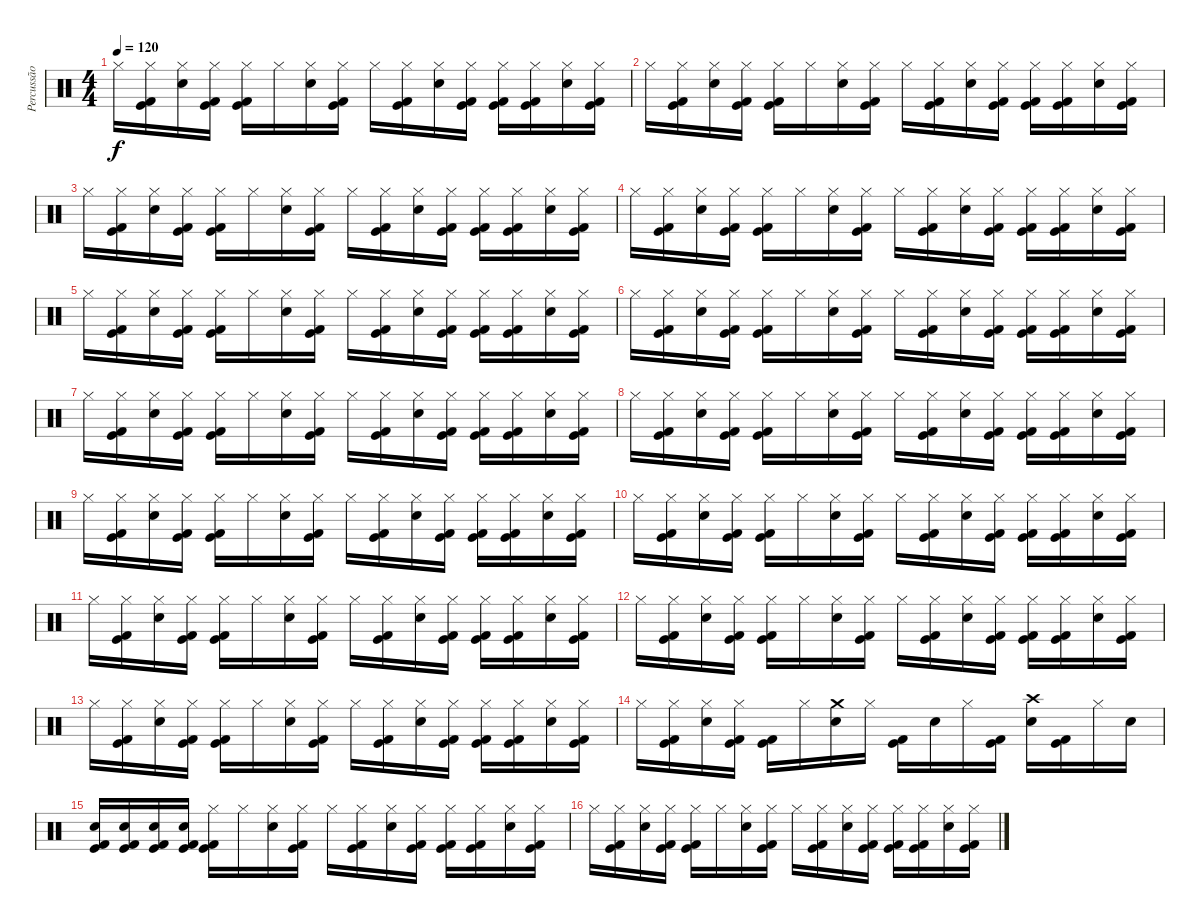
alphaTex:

\track ("Percussão" "Percussão") {instrument percussion}
\staff {score}
\articulation defaults
\ts (4 4)
\tempo 120
\clef neutral
\ks c "Hi-Hat (closed)".16{dy f}
("Hi-Hat (closed)" "Kick (hit)" "Kick (hit) 2").16 ("Hi-Hat (closed)" "Electric Snare (hit)").16 ("Hi-Hat (closed)" "Kick (hit)" "Kick (hit) 2").16 ("Hi-Hat (closed)" "Kick (hit)" "Kick (hit) 2").16 "Hi-Hat (closed)".16 ("Hi-Hat (closed)" "Electric Snare (hit)").16 ("Hi-Hat (closed)" "Kick (hit)" "Kick (hit) 2").16 "Hi-Hat (closed)".16 ("Hi-Hat (closed)" "Kick (hit)" "Kick (hit) 2").16 ("Hi-Hat (closed)" "Electric Snare (hit)").16 ("Hi-Hat (closed)" "Kick (hit)" "Kick (hit) 2").16 ("Hi-Hat (closed)" "Kick (hit)" "Kick (hit) 2").16 ("Hi-Hat (closed)" "Kick (hit)" "Kick (hit) 2").16 ("Hi-Hat (closed)" "Electric Snare (hit)").16 ("Hi-Hat (closed)" "Kick (hit)" "Kick (hit) 2").16 |
"Hi-Hat (closed)".16 ("Hi-Hat (closed)" "Kick (hit)" "Kick (hit) 2").16 ("Hi-Hat (closed)" "Electric Snare (hit)").16 ("Hi-Hat (closed)" "Kick (hit)" "Kick (hit) 2").16 ("Hi-Hat (closed)" "Kick (hit)" "Kick (hit) 2").16 "Hi-Hat (closed)".16 ("Hi-Hat (closed)" "Electric Snare (hit)").16 ("Hi-Hat (closed)" "Kick (hit)" "Kick (hit) 2").16 "Hi-Hat (closed)".16 ("Hi-Hat (closed)" "Kick (hit)" "Kick (hit) 2").16 ("Hi-Hat (closed)" "Electric Snare (hit)").16 ("Hi-Hat (closed)" "Kick (hit)" "Kick (hit) 2").16 ("Hi-Hat (closed)" "Kick (hit)" "Kick (hit) 2").16 ("Hi-Hat (closed)" "Kick (hit)" "Kick (hit) 2").16 ("Hi-Hat (closed)" "Electric Snare (hit)").16 ("Hi-Hat (closed)" "Kick (hit)" "Kick (hit) 2").16 |
"Hi-Hat (closed)".16 ("Hi-Hat (closed)" "Kick (hit)" "Kick (hit) 2").16 ("Hi-Hat (closed)" "Electric Snare (hit)").16 ("Hi-Hat (closed)" "Kick (hit)" "Kick (hit) 2").16 ("Hi-Hat (closed)" "Kick (hit)" "Kick (hit) 2").16 "Hi-Hat (closed)".16 ("Hi-Hat (closed)" "Electric Snare (hit)").16 ("Hi-Hat (closed)" "Kick (hit)" "Kick (hit) 2").16 "Hi-Hat (closed)".16 ("Hi-Hat (closed)" "Kick (hit)" "Kick (hit) 2").16 ("Hi-Hat (closed)" "Electric Snare (hit)").16 ("Hi-Hat (closed)" "Kick (hit)" "Kick (hit) 2").16 ("Hi-Hat (closed)" "Kick (hit)" "Kick (hit) 2").16 ("Hi-Hat (closed)" "Kick (hit)" "Kick (hit) 2").16 ("Hi-Hat (closed)" "Electric Snare (hit)").16 ("Hi-Hat (closed)" "Kick (hit)" "Kick (hit) 2").16 |
"Hi-Hat (closed)".16 ("Hi-Hat (closed)" "Kick (hit)" "Kick (hit) 2").16 ("Hi-Hat (closed)" "Electric Snare (hit)").16 ("Hi-Hat (closed)" "Kick (hit)" "Kick (hit) 2").16 ("Hi-Hat (closed)" "Kick (hit)" "Kick (hit) 2").16 "Hi-Hat (closed)".16 ("Hi-Hat (closed)" "Electric Snare (hit)").16 ("Hi-Hat (closed)" "Kick (hit)" "Kick (hit) 2").16 "Hi-Hat (closed)".16 ("Hi-Hat (closed)" "Kick (hit)" "Kick (hit) 2").16 ("Hi-Hat (closed)" "Electric Snare (hit)").16 ("Hi-Hat (closed)" "Kick (hit)" "Kick (hit) 2").16 ("Hi-Hat (closed)" "Kick (hit)" "Kick (hit) 2").16 ("Hi-Hat (closed)" "Kick (hit)" "Kick (hit) 2").16 ("Hi-Hat (closed)" "Electric Snare (hit)").16 ("Hi-Hat (closed)" "Kick (hit)" "Kick (hit) 2").16 |
"Hi-Hat (closed)".16 ("Hi-Hat (closed)" "Kick (hit)" "Kick (hit) 2").16 ("Hi-Hat (closed)" "Electric Snare (hit)").16 ("Hi-Hat (closed)" "Kick (hit)" "Kick (hit) 2").16 ("Hi-Hat (closed)" "Kick (hit)" "Kick (hit) 2").16 "Hi-Hat (closed)".16 ("Hi-Hat (closed)" "Electric Snare (hit)").16 ("Hi-Hat (closed)" "Kick (hit)" "Kick (hit) 2").16 "Hi-Hat (closed)".16 ("Hi-Hat (closed)" "Kick (hit)" "Kick (hit) 2").16 ("Hi-Hat (closed)" "Electric Snare (hit)").16 ("Hi-Hat (closed)" "Kick (hit)" "Kick (hit) 2").16 ("Hi-Hat (closed)" "Kick (hit)" "Kick (hit) 2").16 ("Hi-Hat (closed)" "Kick (hit)" "Kick (hit) 2").16 ("Hi-Hat (closed)" "Electric Snare (hit)").16 ("Hi-Hat (closed)" "Kick (hit)" "Kick (hit) 2").16 |
"Hi-Hat (closed)".16 ("Hi-Hat (closed)" "Kick (hit)" "Kick (hit) 2").16 ("Hi-Hat (closed)" "Electric Snare (hit)").16 ("Hi-Hat (closed)" "Kick (hit)" "Kick (hit) 2").16 ("Hi-Hat (closed)" "Kick (hit)" "Kick (hit) 2").16 "Hi-Hat (closed)".16 ("Hi-Hat (closed)" "Electric Snare (hit)").16 ("Hi-Hat (closed)" "Kick (hit)" "Kick (hit) 2").16 "Hi-Hat (closed)".16 ("Hi-Hat (closed)" "Kick (hit)" "Kick (hit) 2").16 ("Hi-Hat (closed)" "Electric Snare (hit)").16 ("Hi-Hat (closed)" "Kick (hit)" "Kick (hit) 2").16 ("Hi-Hat (closed)" "Kick (hit)" "Kick (hit) 2").16 ("Hi-Hat (closed)" "Kick (hit)" "Kick (hit) 2").16 ("Hi-Hat (closed)" "Electric Snare (hit)").16 ("Hi-Hat (closed)" "Kick (hit)" "Kick (hit) 2").16 |
"Hi-Hat (closed)".16 ("Hi-Hat (closed)" "Kick (hit)" "Kick (hit) 2").16 ("Hi-Hat (closed)" "Electric Snare (hit)").16 ("Hi-Hat (closed)" "Kick (hit)" "Kick (hit) 2").16 ("Hi-Hat (closed)" "Kick (hit)" "Kick (hit) 2").16 "Hi-Hat (closed)".16 ("Hi-Hat (closed)" "Electric Snare (hit)").16 ("Hi-Hat (closed)" "Kick (hit)" "Kick (hit) 2").16 "Hi-Hat (closed)".16 ("Hi-Hat (closed)" "Kick (hit)" "Kick (hit) 2").16 ("Hi-Hat (closed)" "Electric Snare (hit)").16 ("Hi-Hat (closed)" "Kick (hit)" "Kick (hit) 2").16 ("Hi-Hat (closed)" "Kick (hit)" "Kick (hit) 2").16 ("Hi-Hat (closed)" "Kick (hit)" "Kick (hit) 2").16 ("Hi-Hat (closed)" "Electric Snare (hit)").16 ("Hi-Hat (closed)" "Kick (hit)" "Kick (hit) 2").16 |
"Hi-Hat (closed)".16 ("Hi-Hat (closed)" "Kick (hit)" "Kick (hit) 2").16 ("Hi-Hat (closed)" "Electric Snare (hit)").16 ("Hi-Hat (closed)" "Kick (hit)" "Kick (hit) 2").16 ("Hi-Hat (closed)" "Kick (hit)" "Kick (hit) 2").16 "Hi-Hat (closed)".16 ("Hi-Hat (closed)" "Electric Snare (hit)").16 ("Hi-Hat (closed)" "Kick (hit)" "Kick (hit) 2").16 "Hi-Hat (closed)".16 ("Hi-Hat (closed)" "Kick (hit)" "Kick (hit) 2").16 ("Hi-Hat (closed)" "Electric Snare (hit)").16 ("Hi-Hat (closed)" "Kick (hit)" "Kick (hit) 2").16 ("Hi-Hat (closed)" "Kick (hit)" "Kick (hit) 2").16 ("Hi-Hat (closed)" "Kick (hit)" "Kick (hit) 2").16 ("Hi-Hat (closed)" "Electric Snare (hit)").16 ("Hi-Hat (closed)" "Kick (hit)" "Kick (hit) 2").16 |
"Hi-Hat (closed)".16 ("Hi-Hat (closed)" "Kick (hit)" "Kick (hit) 2").16 ("Hi-Hat (closed)" "Electric Snare (hit)").16 ("Hi-Hat (closed)" "Kick (hit)" "Kick (hit) 2").16 ("Hi-Hat (closed)" "Kick (hit)" "Kick (hit) 2").16 "Hi-Hat (closed)".16 ("Hi-Hat (closed)" "Electric Snare (hit)").16 ("Hi-Hat (closed)" "Kick (hit)" "Kick (hit) 2").16 "Hi-Hat (closed)".16 ("Hi-Hat (closed)" "Kick (hit)" "Kick (hit) 2").16 ("Hi-Hat (closed)" "Electric Snare (hit)").16 ("Hi-Hat (closed)" "Kick (hit)" "Kick (hit) 2").16 ("Hi-Hat (closed)" "Kick (hit)" "Kick (hit) 2").16 ("Hi-Hat (closed)" "Kick (hit)" "Kick (hit) 2").16 ("Hi-Hat (closed)" "Electric Snare (hit)").16 ("Hi-Hat (closed)" "Kick (hit)" "Kick (hit) 2").16 |
"Hi-Hat (closed)".16 ("Hi-Hat (closed)" "Kick (hit)" "Kick (hit) 2").16 ("Hi-Hat (closed)" "Electric Snare (hit)").16 ("Hi-Hat (closed)" "Kick (hit)" "Kick (hit) 2").16 ("Hi-Hat (closed)" "Kick (hit)" "Kick (hit) 2").16 "Hi-Hat (closed)".16 ("Hi-Hat (closed)" "Electric Snare (hit)").16 ("Hi-Hat (closed)" "Kick (hit)" "Kick (hit) 2").16 "Hi-Hat (closed)".16 ("Hi-Hat (closed)" "Kick (hit)" "Kick (hit) 2").16 ("Hi-Hat (closed)" "Electric Snare (hit)").16 ("Hi-Hat (closed)" "Kick (hit)" "Kick (hit) 2").16 ("Hi-Hat (closed)" "Kick (hit)" "Kick (hit) 2").16 ("Hi-Hat (closed)" "Kick (hit)" "Kick (hit) 2").16 ("Hi-Hat (closed)" "Electric Snare (hit)").16 ("Hi-Hat (closed)" "Kick (hit)" "Kick (hit) 2").16 |
"Hi-Hat (closed)".16 ("Hi-Hat (closed)" "Kick (hit)" "Kick (hit) 2").16 ("Hi-Hat (closed)" "Electric Snare (hit)").16 ("Hi-Hat (closed)" "Kick (hit)" "Kick (hit) 2").16 ("Hi-Hat (closed)" "Kick (hit)" "Kick (hit) 2").16 "Hi-Hat (closed)".16 ("Hi-Hat (closed)" "Electric Snare (hit)").16 ("Hi-Hat (closed)" "Kick (hit)" "Kick (hit) 2").16 "Hi-Hat (closed)".16 ("Hi-Hat (closed)" "Kick (hit)" "Kick (hit) 2").16 ("Hi-Hat (closed)" "Electric Snare (hit)").16 ("Hi-Hat (closed)" "Kick (hit)" "Kick (hit) 2").16 ("Hi-Hat (closed)" "Kick (hit)" "Kick (hit) 2").16 ("Hi-Hat (closed)" "Kick (hit)" "Kick (hit) 2").16 ("Hi-Hat (closed)" "Electric Snare (hit)").16 ("Hi-Hat (closed)" "Kick (hit)" "Kick (hit) 2").16 |
"Hi-Hat (closed)".16 ("Hi-Hat (closed)" "Kick (hit)" "Kick (hit) 2").16 ("Hi-Hat (closed)" "Electric Snare (hit)").16 ("Hi-Hat (closed)" "Kick (hit)" "Kick (hit) 2").16 ("Hi-Hat (closed)" "Kick (hit)" "Kick (hit) 2").16 "Hi-Hat (closed)".16 ("Hi-Hat (closed)" "Electric Snare (hit)").16 ("Hi-Hat (closed)" "Kick (hit)" "Kick (hit) 2").16 "Hi-Hat (closed)".16 ("Hi-Hat (closed)" "Kick (hit)" "Kick (hit) 2").16 ("Hi-Hat (closed)" "Electric Snare (hit)").16 ("Hi-Hat (closed)" "Kick (hit)" "Kick (hit) 2").16 ("Hi-Hat (closed)" "Kick (hit)" "Kick (hit) 2").16 ("Hi-Hat (closed)" "Kick (hit)" "Kick (hit) 2").16 ("Hi-Hat (closed)" "Electric Snare (hit)").16 ("Hi-Hat (closed)" "Kick (hit)" "Kick (hit) 2").16 |
"Hi-Hat (closed)".16 ("Hi-Hat (closed)" "Kick (hit)" "Kick (hit) 2").16 ("Hi-Hat (closed)" "Electric Snare (hit)").16 ("Hi-Hat (closed)" "Kick (hit)" "Kick (hit) 2").16 ("Hi-Hat (closed)" "Kick (hit)" "Kick (hit) 2").16 "Hi-Hat (closed)".16 ("Hi-Hat (closed)" "Electric Snare (hit)").16 ("Hi-Hat (closed)" "Kick (hit)" "Kick (hit) 2").16 "Hi-Hat (closed)".16 ("Hi-Hat (closed)" "Kick (hit)" "Kick (hit) 2").16 ("Hi-Hat (closed)" "Electric Snare (hit)").16 ("Hi-Hat (closed)" "Kick (hit)" "Kick (hit) 2").16 ("Hi-Hat (closed)" "Kick (hit)" "Kick (hit) 2").16 ("Hi-Hat (closed)" "Kick (hit)" "Kick (hit) 2").16 ("Hi-Hat (closed)" "Electric Snare (hit)").16 ("Hi-Hat (closed)" "Kick (hit)" "Kick (hit) 2").16 |
"Hi-Hat (closed)".16 ("Hi-Hat (closed)" "Kick (hit)" "Kick (hit) 2").16 ("Hi-Hat (closed)" "Electric Snare (hit)").16 ("Hi-Hat (closed)" "Kick (hit)" "Kick (hit) 2").16 ("Kick (hit)" "Kick (hit) 2").16 "Hi-Hat (closed)".16 ("Crash medium (hit)" "Electric Snare (hit)").16 "Hi-Hat (closed)".16 ("Kick (hit)" "Kick (hit) 2").16 "Electric Snare (hit)".16 "Hi-Hat (closed)".16 ("Kick (hit)" "Kick (hit) 2").16 ("Crash high (hit)" "Electric Snare (hit)").16 ("Kick (hit)" "Kick (hit) 2").16 "Hi-Hat (closed)".16 "Electric Snare (hit)".16 |
("Electric Snare (hit)" "Kick (hit)" "Kick (hit) 2").16 ("Electric Snare (hit)" "Kick (hit)" "Kick (hit) 2").16 ("Electric Snare (hit)" "Kick (hit)" "Kick (hit) 2").16 ("Electric Snare (hit)" "Kick (hit)" "Kick (hit) 2").16 ("Hi-Hat (closed)" "Kick (hit)" "Kick (hit) 2").16 "Hi-Hat (closed)".16 ("Hi-Hat (closed)" "Electric Snare (hit)").16 ("Hi-Hat (closed)" "Kick (hit)" "Kick (hit) 2").16 "Hi-Hat (closed)".16 ("Hi-Hat (closed)" "Kick (hit)" "Kick (hit) 2").16 ("Hi-Hat (closed)" "Electric Snare (hit)").16 ("Hi-Hat (closed)" "Kick (hit)" "Kick (hit) 2").16 ("Hi-Hat (closed)" "Kick (hit)" "Kick (hit) 2").16 ("Hi-Hat (closed)" "Kick (hit)" "Kick (hit) 2").16 ("Hi-Hat (closed)" "Electric Snare (hit)").16 ("Hi-Hat (closed)" "Kick (hit)" "Kick (hit) 2").16 |
"Hi-Hat (closed)".16 ("Hi-Hat (closed)" "Kick (hit)" "Kick (hit) 2").16 ("Hi-Hat (closed)" "Electric Snare (hit)").16 ("Hi-Hat (closed)" "Kick (hit)" "Kick (hit) 2").16 ("Hi-Hat (closed)" "Kick (hit)" "Kick (hit) 2").16 "Hi-Hat (closed)".16 ("Hi-Hat (closed)" "Electric Snare (hit)").16 ("Hi-Hat (closed)" "Kick (hit)" "Kick (hit) 2").16 "Hi-Hat (closed)".16 ("Hi-Hat (closed)" "Kick (hit)" "Kick (hit) 2").16 ("Hi-Hat (closed)" "Electric Snare (hit)").16 ("Hi-Hat (closed)" "Kick (hit)" "Kick (hit) 2").16 ("Hi-Hat (closed)" "Kick (hit)" "Kick (hit) 2").16 ("Hi-Hat (closed)" "Kick (hit)" "Kick (hit) 2").16 ("Hi-Hat (closed)" "Electric Snare (hit)").16 ("Hi-Hat (closed)" "Kick (hit)" "Kick (hit) 2").16
